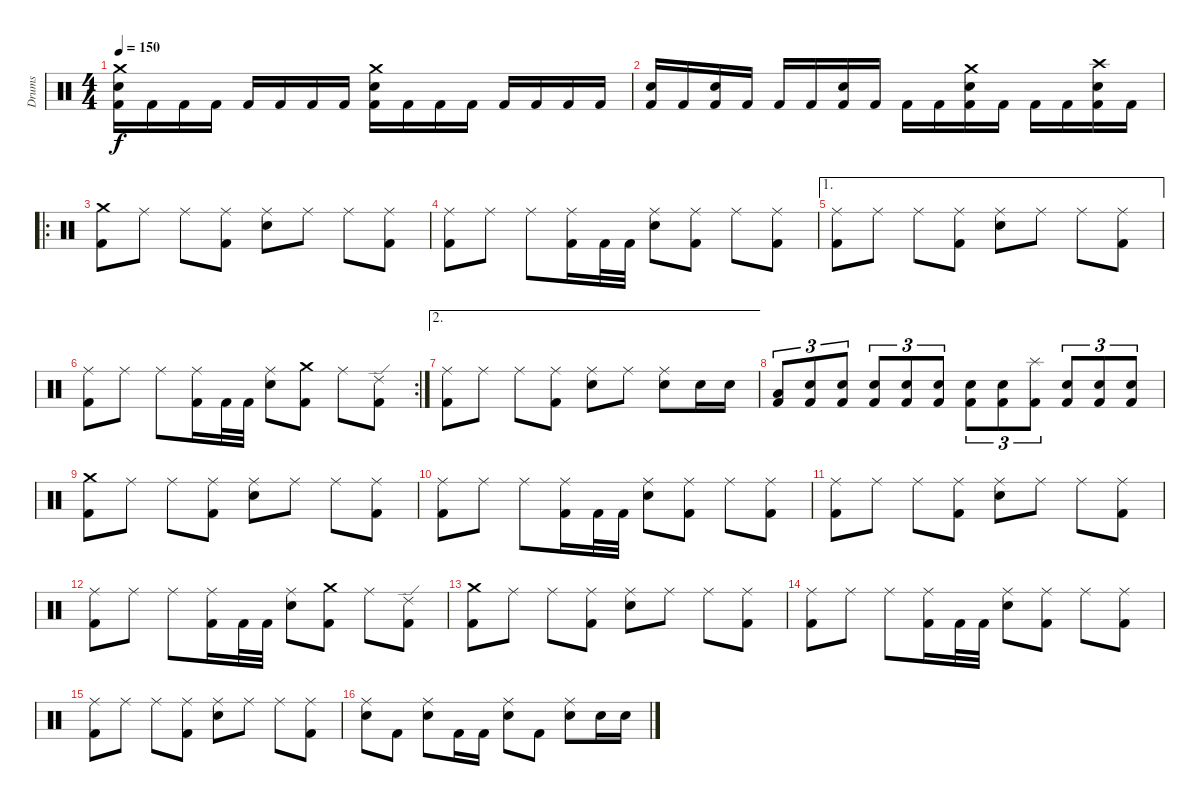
\track ("Drums" "Drums") {instrument percussion}
\staff {score}
\articulation defaults
\ts (4 4)
\tempo 150
\clef neutral
\ks c
("Crash medium (hit)" "Electric Snare (hit)" "Kick (hit) 2").16{dy f} "Kick (hit) 2".16 "Kick (hit) 2".16 "Kick (hit) 2".16 "Kick (hit) 2".16 "Kick (hit) 2".16 "Kick (hit) 2".16 "Kick (hit) 2".16 ("Crash medium (hit)" "Electric Snare (hit)" "Kick (hit) 2").16 "Kick (hit) 2".16 "Kick (hit) 2".16 "Kick (hit) 2".16 "Kick (hit) 2".16 "Kick (hit) 2".16 "Kick (hit) 2".16 "Kick (hit) 2".16 |
("Electric Snare (hit)" "Kick (hit) 2").16 "Kick (hit) 2".16 ("Electric Snare (hit)" "Kick (hit) 2").16 "Kick (hit) 2".16 "Kick (hit) 2".16 "Kick (hit) 2".16 ("Electric Snare (hit)" "Kick (hit) 2").16 "Kick (hit) 2".16 "Kick (hit) 2".16 "Kick (hit) 2".16 ("Crash medium (hit)" "Electric Snare (hit)" "Kick (hit) 2").16 "Kick (hit) 2".16 "Kick (hit) 2".16 "Kick (hit) 2".16 ("Crash high (hit)" "Electric Snare (hit)" "Kick (hit) 2").16 "Kick (hit) 2".16 |
\ro
("Crash medium (hit)" "Kick (hit) 2").8 "Ride (middle)".8 "Ride (middle)".8 ("Ride (middle)" "Kick (hit) 2").8 ("Ride (middle)" "Electric Snare (hit)").8 "Ride (middle)".8 "Ride (middle)".8 ("Ride (middle)" "Kick (hit) 2").8 |
("Ride (middle)" "Kick (hit) 2").8 "Ride (middle)".8 "Ride (middle)".8 ("Ride (middle)" "Kick (hit) 2").16 "Kick (hit) 2".32 "Kick (hit) 2".32 ("Ride (middle)" "Electric Snare (hit)").8 ("Ride (middle)" "Kick (hit) 2").8 "Ride (middle)".8 ("Ride (middle)" "Kick (hit) 2").8 |
\ae 1
("Ride (middle)" "Kick (hit) 2").8 "Ride (middle)".8 "Ride (middle)".8 ("Ride (middle)" "Kick (hit) 2").8 ("Ride (middle)" "Electric Snare (hit)").8 "Ride (middle)".8 "Ride (middle)".8 ("Ride (middle)" "Kick (hit) 2").8 |
\rc 2
("Ride (middle)" "Kick (hit) 2").8 "Ride (middle)".8 "Ride (middle)".8 ("Ride (middle)" "Kick (hit) 2").16 "Kick (hit) 2".32 "Kick (hit) 2".32 ("Ride (middle)" "Electric Snare (hit)").8 ("Crash medium (hit)" "Kick (hit) 2").8 "Ride (middle)".8 ("Ride (edge) 2" "Kick (hit) 2").8 |
\ae 2
("Ride (middle)" "Kick (hit) 2").8 "Ride (middle)".8 "Ride (middle)".8 ("Ride (middle)" "Kick (hit) 2").8 ("Ride (middle)" "Electric Snare (hit)").8 "Ride (middle)".8 ("Ride (middle)" "Electric Snare (hit)").8 "Electric Snare (hit)".16 "Electric Snare (hit)".16 |
("Low Tom (hit)" "Kick (hit) 2").8{tu (3 2)} ("Electric Snare (hit)" "Kick (hit) 2").8{tu (3 2)} ("Electric Snare (hit)" "Kick (hit) 2").8{tu (3 2)} ("Electric Snare (hit)" "Kick (hit) 2").8{tu (3 2)} ("Electric Snare (hit)" "Kick (hit) 2").8{tu (3 2)} ("Electric Snare (hit)" "Kick (hit) 2").8{tu (3 2)} ("Electric Snare (hit)" "Kick (hit) 2").8{tu (3 2)} ("Electric Snare (hit)" "Kick (hit) 2").8{tu (3 2)} ("Splash (hit)" "Kick (hit) 2").8{tu (3 2)} ("Electric Snare (hit)" "Kick (hit) 2").8{tu (3 2)} ("Electric Snare (hit)" "Kick (hit) 2").8{tu (3 2)} ("Electric Snare (hit)" "Kick (hit) 2").8{tu (3 2)} |
("Crash medium (hit)" "Kick (hit) 2").8 "Ride (middle)".8 "Ride (middle)".8 ("Ride (middle)" "Kick (hit) 2").8 ("Ride (middle)" "Electric Snare (hit)").8 "Ride (middle)".8 "Ride (middle)".8 ("Ride (middle)" "Kick (hit) 2").8 |
("Ride (middle)" "Kick (hit) 2").8 "Ride (middle)".8 "Ride (middle)".8 ("Ride (middle)" "Kick (hit) 2").16 "Kick (hit) 2".32 "Kick (hit) 2".32 ("Ride (middle)" "Electric Snare (hit)").8 ("Ride (middle)" "Kick (hit) 2").8 "Ride (middle)".8 ("Ride (middle)" "Kick (hit) 2").8 |
("Ride (middle)" "Kick (hit) 2").8 "Ride (middle)".8 "Ride (middle)".8 ("Ride (middle)" "Kick (hit) 2").8 ("Ride (middle)" "Electric Snare (hit)").8 "Ride (middle)".8 "Ride (middle)".8 ("Ride (middle)" "Kick (hit) 2").8 |
("Ride (middle)" "Kick (hit) 2").8 "Ride (middle)".8 "Ride (middle)".8 ("Ride (middle)" "Kick (hit) 2").16 "Kick (hit) 2".32 "Kick (hit) 2".32 ("Ride (middle)" "Electric Snare (hit)").8 ("Crash medium (hit)" "Kick (hit) 2").8 "Ride (middle)".8 ("Ride (edge) 2" "Kick (hit) 2").8 |
("Crash medium (hit)" "Kick (hit) 2").8 "Ride (middle)".8 "Ride (middle)".8 ("Ride (middle)" "Kick (hit) 2").8 ("Ride (middle)" "Electric Snare (hit)").8 "Ride (middle)".8 "Ride (middle)".8 ("Ride (middle)" "Kick (hit) 2").8 |
("Ride (middle)" "Kick (hit) 2").8 "Ride (middle)".8 "Ride (middle)".8 ("Ride (middle)" "Kick (hit) 2").16 "Kick (hit) 2".32 "Kick (hit) 2".32 ("Ride (middle)" "Electric Snare (hit)").8 ("Ride (middle)" "Kick (hit) 2").8 "Ride (middle)".8 ("Ride (middle)" "Kick (hit) 2").8 |
("Ride (middle)" "Kick (hit) 2").8 "Ride (middle)".8 "Ride (middle)".8 ("Ride (middle)" "Kick (hit) 2").8 ("Ride (middle)" "Electric Snare (hit)").8 "Ride (middle)".8 "Ride (middle)".8 ("Ride (middle)" "Kick (hit) 2").8 |
("Ride (middle)" "Electric Snare (hit)").8 "Kick (hit) 2".8 ("Ride (middle)" "Electric Snare (hit)").8 "Kick (hit) 2".16 "Kick (hit) 2".16 ("Ride (middle)" "Electric Snare (hit)").8 "Kick (hit) 2".8 ("Ride (middle)" "Electric Snare (hit)").8 "Electric Snare (hit)".16 "Electric Snare (hit)".16
